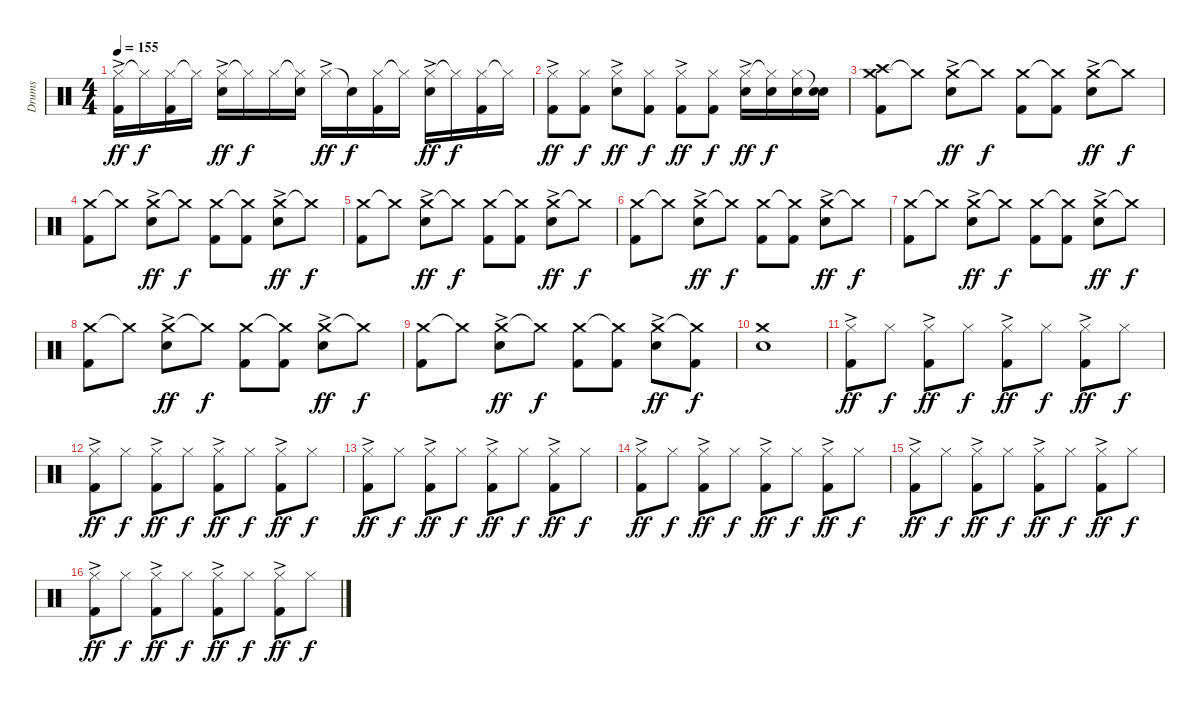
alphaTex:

\track ("Drums" "Drums") {instrument percussion}
\staff {score}
\articulation defaults
\ts (4 4)
\tempo 155
\clef neutral
\ks c
("Hi-Hat (closed)"{ac} "Kick (hit) 2").16{dy ff} "Hi-Hat (closed)"{t}.16{dy f} ("Hi-Hat (closed)" "Kick (hit) 2").16 "Hi-Hat (closed)"{t}.16 ("Hi-Hat (closed)"{ac} "Electric Snare (hit)").16{dy ff} "Hi-Hat (closed)"{t}.16{dy f} "Hi-Hat (closed)".16 ("Hi-Hat (closed)"{t} "Electric Snare (hit)").16 "Hi-Hat (closed)"{ac}.16{dy ff} "Snare (hit)"{t}.16{dy f} ("Hi-Hat (closed)" "Kick (hit) 2").16 "Hi-Hat (closed)"{t}.16 ("Hi-Hat (closed)"{ac} "Electric Snare (hit)").16{dy ff} "Hi-Hat (closed)"{t}.16{dy f} ("Hi-Hat (closed)" "Kick (hit) 2").16 "Hi-Hat (closed)"{t}.16 |
("Hi-Hat (closed)"{ac} "Kick (hit) 2").8{dy ff} ("Hi-Hat (closed)" "Kick (hit) 2").8{dy f} ("Hi-Hat (closed)"{ac} "Electric Snare (hit)").8{dy ff} ("Hi-Hat (closed)" "Kick (hit) 2").8{dy f} ("Hi-Hat (closed)"{ac} "Kick (hit) 2").8{dy ff} ("Hi-Hat (closed)" "Kick (hit) 2").8{dy f} ("Hi-Hat (closed)"{ac} "Electric Snare (hit)").16{dy ff} ("Hi-Hat (closed)"{t} "Electric Snare (hit)").16{dy f} ("Hi-Hat (closed)" "Electric Snare (hit)").16 ("Snare (hit)"{t} "Electric Snare (hit)").16 |
("Crash medium (hit)" "Crash high (hit)" "Kick (hit) 2").8 "Crash medium (hit)"{t}.8 ("Crash medium (hit)"{ac} "Electric Snare (hit)").8{dy ff} "Crash medium (hit)"{t}.8{dy f} ("Crash medium (hit)" "Kick (hit) 2").8 ("Crash medium (hit)"{t} "Kick (hit) 2").8 ("Crash medium (hit)"{ac} "Electric Snare (hit)").8{dy ff} "Crash medium (hit)"{t}.8{dy f} |
("Crash medium (hit)" "Kick (hit) 2").8 "Crash medium (hit)"{t}.8 ("Crash medium (hit)"{ac} "Electric Snare (hit)").8{dy ff} "Crash medium (hit)"{t}.8{dy f} ("Crash medium (hit)" "Kick (hit) 2").8 ("Crash medium (hit)"{t} "Kick (hit) 2").8 ("Crash medium (hit)"{ac} "Electric Snare (hit)").8{dy ff} "Crash medium (hit)"{t}.8{dy f} |
("Crash medium (hit)" "Kick (hit) 2").8 "Crash medium (hit)"{t}.8 ("Crash medium (hit)"{ac} "Electric Snare (hit)").8{dy ff} "Crash medium (hit)"{t}.8{dy f} ("Crash medium (hit)" "Kick (hit) 2").8 ("Crash medium (hit)"{t} "Kick (hit) 2").8 ("Crash medium (hit)"{ac} "Electric Snare (hit)").8{dy ff} "Crash medium (hit)"{t}.8{dy f} |
("Crash medium (hit)" "Kick (hit) 2").8 "Crash medium (hit)"{t}.8 ("Crash medium (hit)"{ac} "Electric Snare (hit)").8{dy ff} "Crash medium (hit)"{t}.8{dy f} ("Crash medium (hit)" "Kick (hit) 2").8 ("Crash medium (hit)"{t} "Kick (hit) 2").8 ("Crash medium (hit)"{ac} "Electric Snare (hit)").8{dy ff} "Crash medium (hit)"{t}.8{dy f} |
("Crash medium (hit)" "Kick (hit) 2").8 "Crash medium (hit)"{t}.8 ("Crash medium (hit)"{ac} "Electric Snare (hit)").8{dy ff} "Crash medium (hit)"{t}.8{dy f} ("Crash medium (hit)" "Kick (hit) 2").8 ("Crash medium (hit)"{t} "Kick (hit) 2").8 ("Crash medium (hit)"{ac} "Electric Snare (hit)").8{dy ff} "Crash medium (hit)"{t}.8{dy f} |
("Crash medium (hit)" "Kick (hit) 2").8 "Crash medium (hit)"{t}.8 ("Crash medium (hit)"{ac} "Electric Snare (hit)").8{dy ff} "Crash medium (hit)"{t}.8{dy f} ("Crash medium (hit)" "Kick (hit) 2").8 ("Crash medium (hit)"{t} "Kick (hit) 2").8 ("Crash medium (hit)"{ac} "Electric Snare (hit)").8{dy ff} "Crash medium (hit)"{t}.8{dy f} |
("Crash medium (hit)" "Kick (hit) 2").8 "Crash medium (hit)"{t}.8 ("Crash medium (hit)"{ac} "Electric Snare (hit)").8{dy ff} "Crash medium (hit)"{t}.8{dy f} ("Crash medium (hit)" "Kick (hit) 2").8 ("Crash medium (hit)"{t} "Kick (hit) 2").8 ("Crash medium (hit)"{ac} "Electric Snare (hit)").8{dy ff} ("Crash medium (hit)"{t} "Kick (hit) 2").8{dy f} |
("Crash medium (hit)" "Electric Snare (hit)").1 |
("Hi-Hat (closed)"{ac} "Kick (hit) 2").8{dy ff} "Hi-Hat (closed)".8{dy f} ("Hi-Hat (closed)"{ac} "Kick (hit) 2").8{dy ff} "Hi-Hat (closed)".8{dy f} ("Hi-Hat (closed)"{ac} "Kick (hit) 2").8{dy ff} "Hi-Hat (closed)".8{dy f} ("Hi-Hat (closed)"{ac} "Kick (hit) 2").8{dy ff} "Hi-Hat (closed)".8{dy f} |
("Hi-Hat (closed)"{ac} "Kick (hit) 2").8{dy ff} "Hi-Hat (closed)".8{dy f} ("Hi-Hat (closed)"{ac} "Kick (hit) 2").8{dy ff} "Hi-Hat (closed)".8{dy f} ("Hi-Hat (closed)"{ac} "Kick (hit) 2").8{dy ff} "Hi-Hat (closed)".8{dy f} ("Hi-Hat (closed)"{ac} "Kick (hit) 2").8{dy ff} "Hi-Hat (closed)".8{dy f} |
("Hi-Hat (closed)"{ac} "Kick (hit) 2").8{dy ff} "Hi-Hat (closed)".8{dy f} ("Hi-Hat (closed)"{ac} "Kick (hit) 2").8{dy ff} "Hi-Hat (closed)".8{dy f} ("Hi-Hat (closed)"{ac} "Kick (hit) 2").8{dy ff} "Hi-Hat (closed)".8{dy f} ("Hi-Hat (closed)"{ac} "Kick (hit) 2").8{dy ff} "Hi-Hat (closed)".8{dy f} |
("Hi-Hat (closed)"{ac} "Kick (hit) 2").8{dy ff} "Hi-Hat (closed)".8{dy f} ("Hi-Hat (closed)"{ac} "Kick (hit) 2").8{dy ff} "Hi-Hat (closed)".8{dy f} ("Hi-Hat (closed)"{ac} "Kick (hit) 2").8{dy ff} "Hi-Hat (closed)".8{dy f} ("Hi-Hat (closed)"{ac} "Kick (hit) 2").8{dy ff} "Hi-Hat (closed)".8{dy f} |
("Hi-Hat (closed)"{ac} "Kick (hit) 2").8{dy ff} "Hi-Hat (closed)".8{dy f} ("Hi-Hat (closed)"{ac} "Kick (hit) 2").8{dy ff} "Hi-Hat (closed)".8{dy f} ("Hi-Hat (closed)"{ac} "Kick (hit) 2").8{dy ff} "Hi-Hat (closed)".8{dy f} ("Hi-Hat (closed)"{ac} "Kick (hit) 2").8{dy ff} "Hi-Hat (closed)".8{dy f} |
("Hi-Hat (closed)"{ac} "Kick (hit) 2").8{dy ff} "Hi-Hat (closed)".8{dy f} ("Hi-Hat (closed)"{ac} "Kick (hit) 2").8{dy ff} "Hi-Hat (closed)".8{dy f} ("Hi-Hat (closed)"{ac} "Kick (hit) 2").8{dy ff} "Hi-Hat (closed)".8{dy f} ("Hi-Hat (closed)"{ac} "Kick (hit) 2").8{dy ff} "Hi-Hat (closed)".8{dy f}
